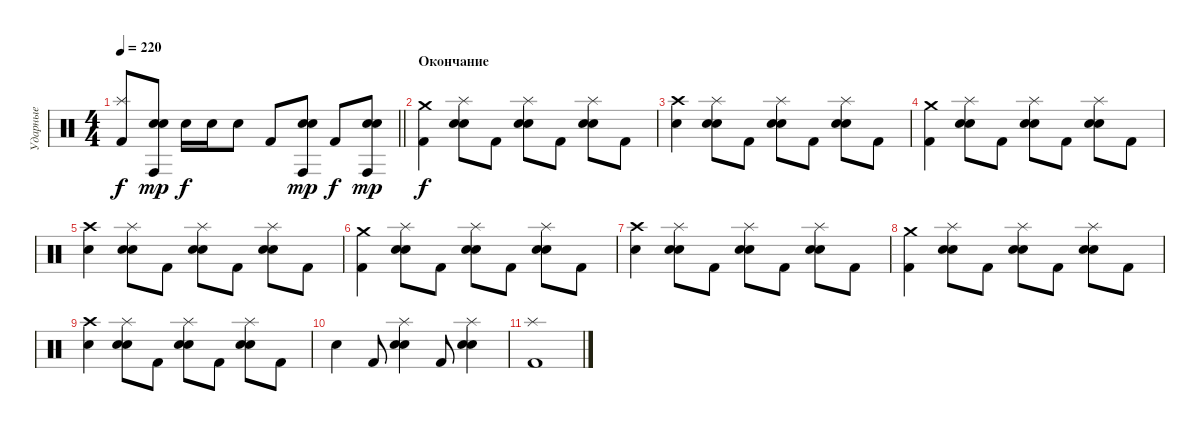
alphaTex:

\track ("Ударные" "Ударные") {instrument percussion}
\staff {score}
\articulation defaults
\ts (4 4)
\tempo 220
\clef neutral
\barLineRight lightlight
\ks c
("Splash (hit)" "Kick (hit) 2").8{dy f} ("Conga high (hit)" "Electric Snare (hit)" "Snare (hit) 2").8{dy mp} "Electric Snare (hit)".16{dy f} "Electric Snare (hit)".16 "Electric Snare (hit)".8 "Kick (hit) 2".8 ("Conga high (hit)" "Electric Snare (hit)" "Snare (hit) 2").8{dy mp} "Kick (hit) 2".8{dy f} ("Conga high (hit)" "Electric Snare (hit)" "Snare (hit) 2").8{dy mp} |
\section ("" "Окончание")
("Crash medium (hit)" "Kick (hit) 2").4{dy f} ("Splash (hit)" "Electric Snare (hit)" "Snare (hit) 2").8 "Kick (hit) 2".8 ("Splash (hit)" "Electric Snare (hit)" "Snare (hit) 2").8 "Kick (hit) 2".8 ("Splash (hit)" "Electric Snare (hit)" "Snare (hit) 2").8 "Kick (hit) 2".8 |
("Crash high (hit)" "Electric Snare (hit)").4 ("Splash (hit)" "Electric Snare (hit)" "Snare (hit) 2").8 "Kick (hit) 2".8 ("Splash (hit)" "Electric Snare (hit)" "Snare (hit) 2").8 "Kick (hit) 2".8 ("Splash (hit)" "Electric Snare (hit)" "Snare (hit) 2").8 "Kick (hit) 2".8 |
("Crash medium (hit)" "Kick (hit) 2").4 ("Splash (hit)" "Electric Snare (hit)" "Snare (hit) 2").8 "Kick (hit) 2".8 ("Splash (hit)" "Electric Snare (hit)" "Snare (hit) 2").8 "Kick (hit) 2".8 ("Splash (hit)" "Electric Snare (hit)" "Snare (hit) 2").8 "Kick (hit) 2".8 |
("Crash high (hit)" "Electric Snare (hit)").4 ("Splash (hit)" "Electric Snare (hit)" "Snare (hit) 2").8 "Kick (hit) 2".8 ("Splash (hit)" "Electric Snare (hit)" "Snare (hit) 2").8 "Kick (hit) 2".8 ("Splash (hit)" "Electric Snare (hit)" "Snare (hit) 2").8 "Kick (hit) 2".8 |
("Crash medium (hit)" "Kick (hit) 2").4 ("Splash (hit)" "Electric Snare (hit)" "Snare (hit) 2").8 "Kick (hit) 2".8 ("Splash (hit)" "Electric Snare (hit)" "Snare (hit) 2").8 "Kick (hit) 2".8 ("Splash (hit)" "Electric Snare (hit)" "Snare (hit) 2").8 "Kick (hit) 2".8 |
("Crash high (hit)" "Electric Snare (hit)").4 ("Splash (hit)" "Electric Snare (hit)" "Snare (hit) 2").8 "Kick (hit) 2".8 ("Splash (hit)" "Electric Snare (hit)" "Snare (hit) 2").8 "Kick (hit) 2".8 ("Splash (hit)" "Electric Snare (hit)" "Snare (hit) 2").8 "Kick (hit) 2".8 |
("Crash medium (hit)" "Kick (hit) 2").4 ("Splash (hit)" "Electric Snare (hit)" "Snare (hit) 2").8 "Kick (hit) 2".8 ("Splash (hit)" "Electric Snare (hit)" "Snare (hit) 2").8 "Kick (hit) 2".8 ("Splash (hit)" "Electric Snare (hit)" "Snare (hit) 2").8 "Kick (hit) 2".8 |
("Crash high (hit)" "Electric Snare (hit)").4 ("Splash (hit)" "Electric Snare (hit)" "Snare (hit) 2").8 "Kick (hit) 2".8 ("Splash (hit)" "Electric Snare (hit)" "Snare (hit) 2").8 "Kick (hit) 2".8 ("Splash (hit)" "Electric Snare (hit)" "Snare (hit) 2").8 "Kick (hit) 2".8 |
"Electric Snare (hit)".4 "Kick (hit) 2".8 ("Splash (hit)" "Electric Snare (hit)" "Snare (hit) 2").4 "Kick (hit) 2".8 ("Splash (hit)" "Electric Snare (hit)" "Snare (hit) 2").4 |
("Splash (hit)" "Kick (hit) 2").1
